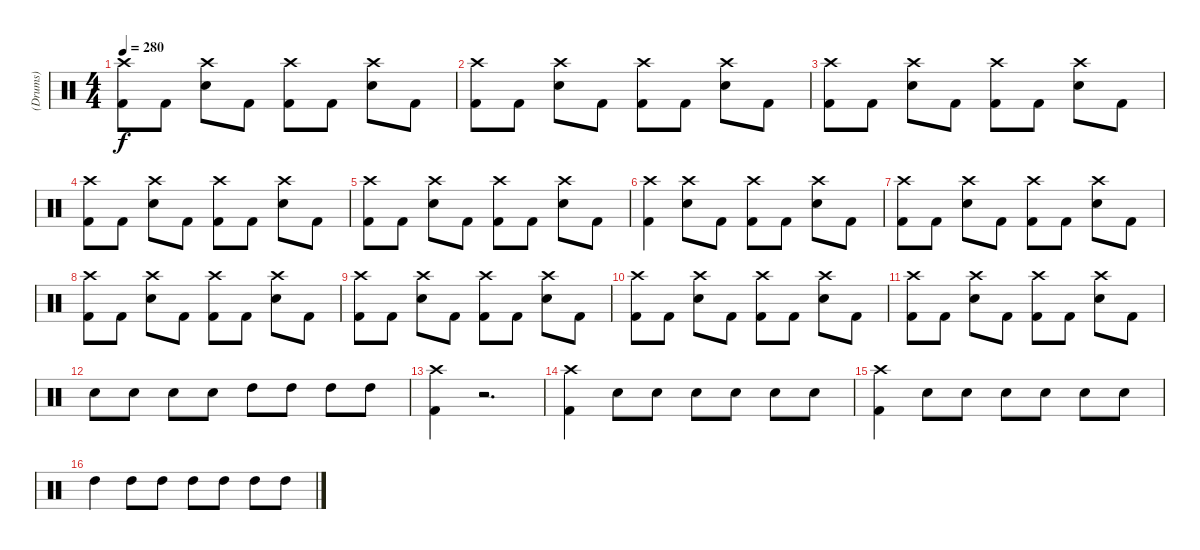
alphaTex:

\track ("(Drums)" "(Drums)") {instrument percussion}
\staff {score}
\articulation defaults
\ts (4 4)
\tempo 280
\clef neutral
\ks c
("Crash high (hit)" "Kick (hit) 2").8{dy f} "Kick (hit) 2".8 ("Crash high (hit)" "Snare (hit) 2").8 "Kick (hit) 2".8 ("Crash high (hit)" "Kick (hit) 2").8 "Kick (hit) 2".8 ("Crash high (hit)" "Snare (hit) 2").8 "Kick (hit) 2".8 |
("Crash high (hit)" "Kick (hit) 2").8 "Kick (hit) 2".8 ("Crash high (hit)" "Snare (hit) 2").8 "Kick (hit) 2".8 ("Crash high (hit)" "Kick (hit) 2").8 "Kick (hit) 2".8 ("Crash high (hit)" "Snare (hit) 2").8 "Kick (hit) 2".8 |
("Crash high (hit)" "Kick (hit) 2").8 "Kick (hit) 2".8 ("Crash high (hit)" "Snare (hit) 2").8 "Kick (hit) 2".8 ("Crash high (hit)" "Kick (hit) 2").8 "Kick (hit) 2".8 ("Crash high (hit)" "Snare (hit) 2").8 "Kick (hit) 2".8 |
("Crash high (hit)" "Kick (hit) 2").8 "Kick (hit) 2".8 ("Crash high (hit)" "Snare (hit) 2").8 "Kick (hit) 2".8 ("Crash high (hit)" "Kick (hit) 2").8 "Kick (hit) 2".8 ("Crash high (hit)" "Snare (hit) 2").8 "Kick (hit) 2".8 |
("Crash high (hit)" "Kick (hit) 2").8 "Kick (hit) 2".8 ("Crash high (hit)" "Snare (hit) 2").8 "Kick (hit) 2".8 ("Crash high (hit)" "Kick (hit) 2").8 "Kick (hit) 2".8 ("Crash high (hit)" "Snare (hit) 2").8 "Kick (hit) 2".8 |
("Crash high (hit)" "Kick (hit) 2").4 ("Crash high (hit)" "Snare (hit) 2").8 "Kick (hit) 2".8 ("Crash high (hit)" "Kick (hit) 2").8 "Kick (hit) 2".8 ("Crash high (hit)" "Snare (hit) 2").8 "Kick (hit) 2".8 |
("Crash high (hit)" "Kick (hit) 2").8 "Kick (hit) 2".8 ("Crash high (hit)" "Snare (hit) 2").8 "Kick (hit) 2".8 ("Crash high (hit)" "Kick (hit) 2").8 "Kick (hit) 2".8 ("Crash high (hit)" "Snare (hit) 2").8 "Kick (hit) 2".8 |
("Crash high (hit)" "Kick (hit) 2").8 "Kick (hit) 2".8 ("Crash high (hit)" "Snare (hit) 2").8 "Kick (hit) 2".8 ("Crash high (hit)" "Kick (hit) 2").8 "Kick (hit) 2".8 ("Crash high (hit)" "Snare (hit) 2").8 "Kick (hit) 2".8 |
("Crash high (hit)" "Kick (hit) 2").8 "Kick (hit) 2".8 ("Crash high (hit)" "Snare (hit) 2").8 "Kick (hit) 2".8 ("Crash high (hit)" "Kick (hit) 2").8 "Kick (hit) 2".8 ("Crash high (hit)" "Snare (hit) 2").8 "Kick (hit) 2".8 |
("Crash high (hit)" "Kick (hit) 2").8 "Kick (hit) 2".8 ("Crash high (hit)" "Snare (hit) 2").8 "Kick (hit) 2".8 ("Crash high (hit)" "Kick (hit) 2").8 "Kick (hit) 2".8 ("Crash high (hit)" "Snare (hit) 2").8 "Kick (hit) 2".8 |
("Crash high (hit)" "Kick (hit) 2").8 "Kick (hit) 2".8 ("Crash high (hit)" "Snare (hit) 2").8 "Kick (hit) 2".8 ("Crash high (hit)" "Kick (hit) 2").8 "Kick (hit) 2".8 ("Crash high (hit)" "Snare (hit) 2").8 "Kick (hit) 2".8 |
"Snare (hit) 2".8 "Snare (hit) 2".8 "Snare (hit) 2".8 "Snare (hit) 2".8 "High Tom (hit)".8 "High Tom (hit)".8 "High Tom (hit)".8 "High Tom (hit)".8 |
("Kick (hit) 2" "Crash high (hit)").4 r.2{d} |
("Kick (hit) 2" "Crash high (hit)").4 "Snare (hit) 2".8 "Snare (hit) 2".8 "Snare (hit) 2".8 "Snare (hit) 2".8 "Snare (hit) 2".8 "Snare (hit) 2".8 |
("Kick (hit) 2" "Crash high (hit)").4 "Snare (hit) 2".8 "Snare (hit) 2".8 "Snare (hit) 2".8 "Snare (hit) 2".8 "Snare (hit) 2".8 "Snare (hit) 2".8 |
"High Tom (hit)".4 "High Tom (hit)".8 "High Tom (hit)".8 "High Tom (hit)".8 "High Tom (hit)".8 "High Tom (hit)".8 "High Tom (hit)".8
